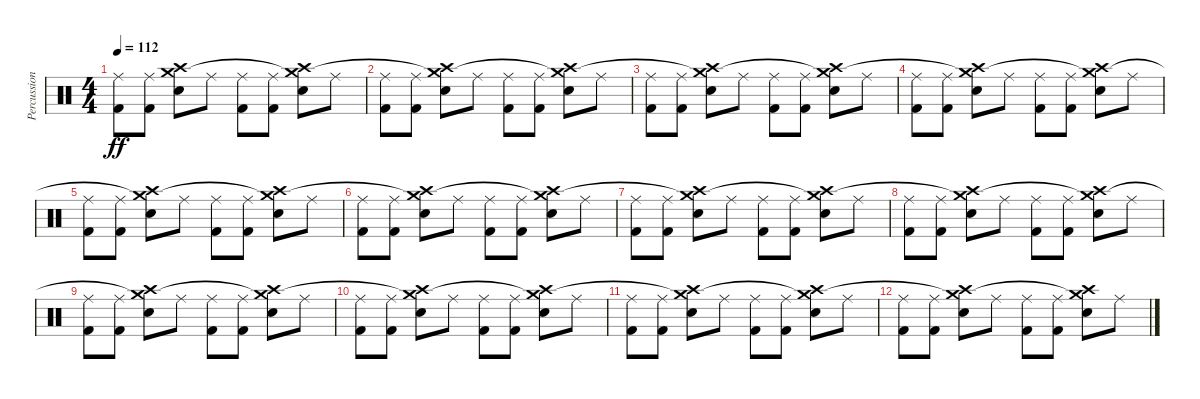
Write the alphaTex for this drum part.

\track ("Percussion" "Percussion") {instrument percussion}
\staff {score}
\articulation defaults
\ts (4 4)
\tempo 112
\clef neutral
\ks c
("Kick (hit) 2" "Ride (middle)").8{dy ff} ("Kick (hit) 2" "Ride (middle)").8 ("Crash high (hit)" "Electric Snare (hit)" "Crash medium (hit)"{t}).8 "Ride (middle)".8 ("Kick (hit) 2" "Ride (middle)").8 ("Kick (hit) 2" "Ride (middle)").8 ("Crash high (hit)" "Electric Snare (hit)" "Crash medium (hit)"{t}).8 "Ride (middle)".8 |
("Kick (hit) 2" "Ride (middle)").8 ("Kick (hit) 2" "Ride (middle)").8 ("Crash high (hit)" "Electric Snare (hit)" "Crash medium (hit)"{t}).8 "Ride (middle)".8 ("Kick (hit) 2" "Ride (middle)").8 ("Kick (hit) 2" "Ride (middle)").8 ("Crash high (hit)" "Electric Snare (hit)" "Crash medium (hit)"{t}).8 "Ride (middle)".8 |
("Kick (hit) 2" "Ride (middle)").8 ("Kick (hit) 2" "Ride (middle)").8 ("Crash high (hit)" "Electric Snare (hit)" "Crash medium (hit)"{t}).8 "Ride (middle)".8 ("Kick (hit) 2" "Ride (middle)").8 ("Kick (hit) 2" "Ride (middle)").8 ("Crash high (hit)" "Electric Snare (hit)" "Crash medium (hit)"{t}).8 "Ride (middle)".8 |
("Kick (hit) 2" "Ride (middle)").8 ("Kick (hit) 2" "Ride (middle)").8 ("Crash high (hit)" "Electric Snare (hit)" "Crash medium (hit)"{t}).8 "Ride (middle)".8 ("Kick (hit) 2" "Ride (middle)").8 ("Kick (hit) 2" "Ride (middle)").8 ("Crash high (hit)" "Electric Snare (hit)" "Crash medium (hit)"{t}).8 "Ride (middle)".8 |
("Kick (hit) 2" "Ride (middle)").8 ("Kick (hit) 2" "Ride (middle)").8 ("Crash high (hit)" "Electric Snare (hit)" "Crash medium (hit)"{t}).8 "Ride (middle)".8 ("Kick (hit) 2" "Ride (middle)").8 ("Kick (hit) 2" "Ride (middle)").8 ("Crash high (hit)" "Electric Snare (hit)" "Crash medium (hit)"{t}).8 "Ride (middle)".8 |
("Kick (hit) 2" "Ride (middle)").8 ("Kick (hit) 2" "Ride (middle)").8 ("Crash high (hit)" "Electric Snare (hit)" "Crash medium (hit)"{t}).8 "Ride (middle)".8 ("Kick (hit) 2" "Ride (middle)").8 ("Kick (hit) 2" "Ride (middle)").8 ("Crash high (hit)" "Electric Snare (hit)" "Crash medium (hit)"{t}).8 "Ride (middle)".8 |
("Kick (hit) 2" "Ride (middle)").8 ("Kick (hit) 2" "Ride (middle)").8 ("Crash high (hit)" "Electric Snare (hit)" "Crash medium (hit)"{t}).8 "Ride (middle)".8 ("Kick (hit) 2" "Ride (middle)").8 ("Kick (hit) 2" "Ride (middle)").8 ("Crash high (hit)" "Electric Snare (hit)" "Crash medium (hit)"{t}).8 "Ride (middle)".8 |
("Kick (hit) 2" "Ride (middle)").8 ("Kick (hit) 2" "Ride (middle)").8 ("Crash high (hit)" "Electric Snare (hit)" "Crash medium (hit)"{t}).8 "Ride (middle)".8 ("Kick (hit) 2" "Ride (middle)").8 ("Kick (hit) 2" "Ride (middle)").8 ("Crash high (hit)" "Electric Snare (hit)" "Crash medium (hit)"{t}).8 "Ride (middle)".8 |
("Kick (hit) 2" "Ride (middle)").8 ("Kick (hit) 2" "Ride (middle)").8 ("Crash high (hit)" "Electric Snare (hit)" "Crash medium (hit)"{t}).8 "Ride (middle)".8 ("Kick (hit) 2" "Ride (middle)").8 ("Kick (hit) 2" "Ride (middle)").8 ("Crash high (hit)" "Electric Snare (hit)" "Crash medium (hit)"{t}).8 "Ride (middle)".8 |
("Kick (hit) 2" "Ride (middle)").8 ("Kick (hit) 2" "Ride (middle)").8 ("Crash high (hit)" "Electric Snare (hit)" "Crash medium (hit)"{t}).8 "Ride (middle)".8 ("Kick (hit) 2" "Ride (middle)").8 ("Kick (hit) 2" "Ride (middle)").8 ("Crash high (hit)" "Electric Snare (hit)" "Crash medium (hit)"{t}).8 "Ride (middle)".8 |
("Kick (hit) 2" "Ride (middle)").8 ("Kick (hit) 2" "Ride (middle)").8 ("Crash high (hit)" "Electric Snare (hit)" "Crash medium (hit)"{t}).8 "Ride (middle)".8 ("Kick (hit) 2" "Ride (middle)").8 ("Kick (hit) 2" "Ride (middle)").8 ("Crash high (hit)" "Electric Snare (hit)" "Crash medium (hit)"{t}).8 "Ride (middle)".8 |
("Kick (hit) 2" "Ride (middle)").8 ("Kick (hit) 2" "Ride (middle)").8 ("Crash high (hit)" "Electric Snare (hit)" "Crash medium (hit)"{t}).8 "Ride (middle)".8 ("Kick (hit) 2" "Ride (middle)").8 ("Kick (hit) 2" "Ride (middle)").8 ("Crash high (hit)" "Electric Snare (hit)" "Crash medium (hit)"{t}).8 "Ride (middle)".8
